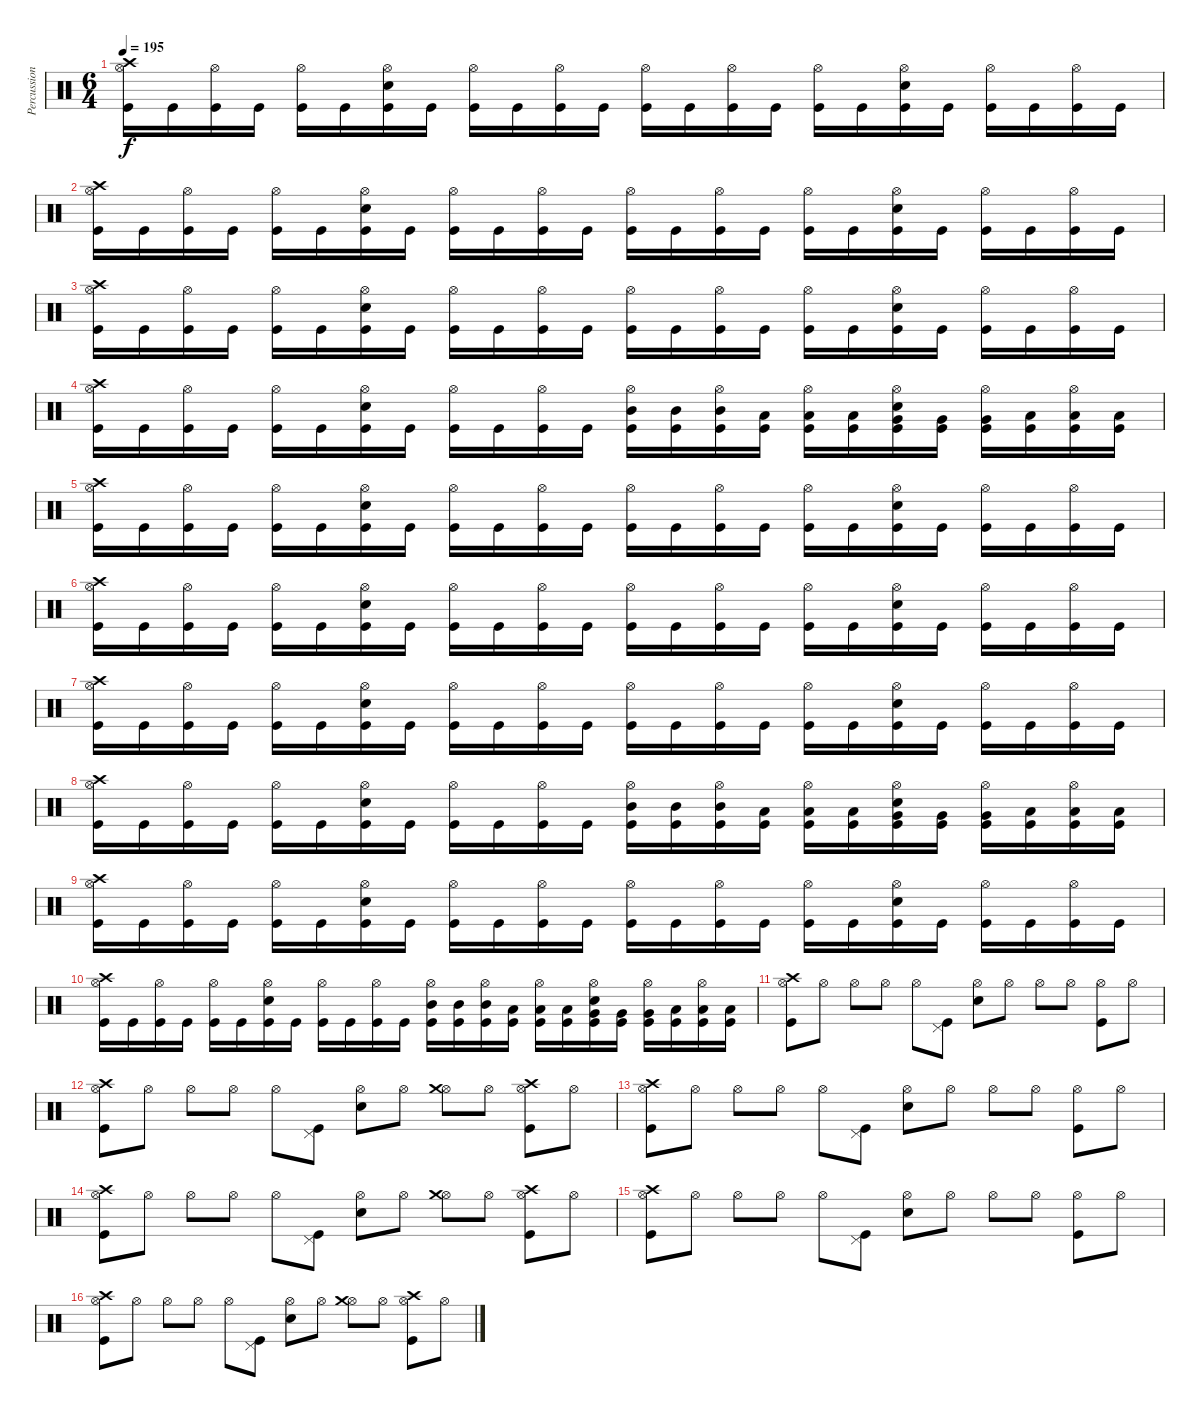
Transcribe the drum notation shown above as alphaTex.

\track ("Percussion" "Percussion") {instrument percussion}
\staff {score}
\articulation defaults
\ts (6 4)
\tempo 195
\clef neutral
\ks c
("Crash high (hit)" "Hi-Hat (open)" "Kick (hit)").16{dy f} "Kick (hit)".16 ("Hi-Hat (open)" "Kick (hit)").16 "Kick (hit)".16 ("Hi-Hat (open)" "Kick (hit)").16 "Kick (hit)".16 ("Electric Snare (hit)" "Hi-Hat (open)" "Kick (hit)").16 "Kick (hit)".16 ("Hi-Hat (open)" "Kick (hit)").16 "Kick (hit)".16 ("Hi-Hat (open)" "Kick (hit)").16 "Kick (hit)".16 ("Hi-Hat (open)" "Kick (hit)").16 "Kick (hit)".16 ("Hi-Hat (open)" "Kick (hit)").16 "Kick (hit)".16 ("Hi-Hat (open)" "Kick (hit)").16 "Kick (hit)".16 ("Electric Snare (hit)" "Hi-Hat (open)" "Kick (hit)").16 "Kick (hit)".16 ("Hi-Hat (open)" "Kick (hit)").16 "Kick (hit)".16 ("Hi-Hat (open)" "Kick (hit)").16 "Kick (hit)".16 |
("Crash high (hit)" "Hi-Hat (open)" "Kick (hit)").16 "Kick (hit)".16 ("Hi-Hat (open)" "Kick (hit)").16 "Kick (hit)".16 ("Hi-Hat (open)" "Kick (hit)").16 "Kick (hit)".16 ("Electric Snare (hit)" "Hi-Hat (open)" "Kick (hit)").16 "Kick (hit)".16 ("Hi-Hat (open)" "Kick (hit)").16 "Kick (hit)".16 ("Hi-Hat (open)" "Kick (hit)").16 "Kick (hit)".16 ("Hi-Hat (open)" "Kick (hit)").16 "Kick (hit)".16 ("Hi-Hat (open)" "Kick (hit)").16 "Kick (hit)".16 ("Hi-Hat (open)" "Kick (hit)").16 "Kick (hit)".16 ("Electric Snare (hit)" "Hi-Hat (open)" "Kick (hit)").16 "Kick (hit)".16 ("Hi-Hat (open)" "Kick (hit)").16 "Kick (hit)".16 ("Hi-Hat (open)" "Kick (hit)").16 "Kick (hit)".16 |
("Crash high (hit)" "Hi-Hat (open)" "Kick (hit)").16 "Kick (hit)".16 ("Hi-Hat (open)" "Kick (hit)").16 "Kick (hit)".16 ("Hi-Hat (open)" "Kick (hit)").16 "Kick (hit)".16 ("Electric Snare (hit)" "Hi-Hat (open)" "Kick (hit)").16 "Kick (hit)".16 ("Hi-Hat (open)" "Kick (hit)").16 "Kick (hit)".16 ("Hi-Hat (open)" "Kick (hit)").16 "Kick (hit)".16 ("Hi-Hat (open)" "Kick (hit)").16 "Kick (hit)".16 ("Hi-Hat (open)" "Kick (hit)").16 "Kick (hit)".16 ("Hi-Hat (open)" "Kick (hit)").16 "Kick (hit)".16 ("Electric Snare (hit)" "Hi-Hat (open)" "Kick (hit)").16 "Kick (hit)".16 ("Hi-Hat (open)" "Kick (hit)").16 "Kick (hit)".16 ("Hi-Hat (open)" "Kick (hit)").16 "Kick (hit)".16 |
("Crash high (hit)" "Hi-Hat (open)" "Kick (hit)").16 "Kick (hit)".16 ("Hi-Hat (open)" "Kick (hit)").16 "Kick (hit)".16 ("Hi-Hat (open)" "Kick (hit)").16 "Kick (hit)".16 ("Electric Snare (hit)" "Hi-Hat (open)" "Kick (hit)").16 "Kick (hit)".16 ("Hi-Hat (open)" "Kick (hit)").16 "Kick (hit)".16 ("Hi-Hat (open)" "Kick (hit)").16 "Kick (hit)".16 ("Hi-Hat (open)" "Mid Tom (hit)" "Kick (hit)").16 ("Mid Tom (hit)" "Kick (hit)").16 ("Hi-Hat (open)" "Mid Tom (hit)" "Kick (hit)").16 ("Low Tom (hit)" "Kick (hit)").16 ("Hi-Hat (open)" "Low Tom (hit)" "Kick (hit)").16 ("Low Tom (hit)" "Kick (hit)").16 ("Electric Snare (hit)" "Hi-Hat (open)" "Very Low Tom (hit)" "Kick (hit)").16 ("Very Low Tom (hit)" "Kick (hit)").16 ("Hi-Hat (open)" "Very Low Tom (hit)" "Kick (hit)").16 ("Low Floor Tom (hit)" "Kick (hit)").16 ("Hi-Hat (open)" "Low Floor Tom (hit)" "Kick (hit)").16 ("Low Floor Tom (hit)" "Kick (hit)").16 |
("Crash high (hit)" "Hi-Hat (open)" "Kick (hit)").16 "Kick (hit)".16 ("Hi-Hat (open)" "Kick (hit)").16 "Kick (hit)".16 ("Hi-Hat (open)" "Kick (hit)").16 "Kick (hit)".16 ("Electric Snare (hit)" "Hi-Hat (open)" "Kick (hit)").16 "Kick (hit)".16 ("Hi-Hat (open)" "Kick (hit)").16 "Kick (hit)".16 ("Hi-Hat (open)" "Kick (hit)").16 "Kick (hit)".16 ("Hi-Hat (open)" "Kick (hit)").16 "Kick (hit)".16 ("Hi-Hat (open)" "Kick (hit)").16 "Kick (hit)".16 ("Hi-Hat (open)" "Kick (hit)").16 "Kick (hit)".16 ("Electric Snare (hit)" "Hi-Hat (open)" "Kick (hit)").16 "Kick (hit)".16 ("Hi-Hat (open)" "Kick (hit)").16 "Kick (hit)".16 ("Hi-Hat (open)" "Kick (hit)").16 "Kick (hit)".16 |
("Crash high (hit)" "Hi-Hat (open)" "Kick (hit)").16 "Kick (hit)".16 ("Hi-Hat (open)" "Kick (hit)").16 "Kick (hit)".16 ("Hi-Hat (open)" "Kick (hit)").16 "Kick (hit)".16 ("Electric Snare (hit)" "Hi-Hat (open)" "Kick (hit)").16 "Kick (hit)".16 ("Hi-Hat (open)" "Kick (hit)").16 "Kick (hit)".16 ("Hi-Hat (open)" "Kick (hit)").16 "Kick (hit)".16 ("Hi-Hat (open)" "Kick (hit)").16 "Kick (hit)".16 ("Hi-Hat (open)" "Kick (hit)").16 "Kick (hit)".16 ("Hi-Hat (open)" "Kick (hit)").16 "Kick (hit)".16 ("Electric Snare (hit)" "Hi-Hat (open)" "Kick (hit)").16 "Kick (hit)".16 ("Hi-Hat (open)" "Kick (hit)").16 "Kick (hit)".16 ("Hi-Hat (open)" "Kick (hit)").16 "Kick (hit)".16 |
("Crash high (hit)" "Hi-Hat (open)" "Kick (hit)").16 "Kick (hit)".16 ("Hi-Hat (open)" "Kick (hit)").16 "Kick (hit)".16 ("Hi-Hat (open)" "Kick (hit)").16 "Kick (hit)".16 ("Electric Snare (hit)" "Hi-Hat (open)" "Kick (hit)").16 "Kick (hit)".16 ("Hi-Hat (open)" "Kick (hit)").16 "Kick (hit)".16 ("Hi-Hat (open)" "Kick (hit)").16 "Kick (hit)".16 ("Hi-Hat (open)" "Kick (hit)").16 "Kick (hit)".16 ("Hi-Hat (open)" "Kick (hit)").16 "Kick (hit)".16 ("Hi-Hat (open)" "Kick (hit)").16 "Kick (hit)".16 ("Electric Snare (hit)" "Hi-Hat (open)" "Kick (hit)").16 "Kick (hit)".16 ("Hi-Hat (open)" "Kick (hit)").16 "Kick (hit)".16 ("Hi-Hat (open)" "Kick (hit)").16 "Kick (hit)".16 |
("Crash high (hit)" "Hi-Hat (open)" "Kick (hit)").16 "Kick (hit)".16 ("Hi-Hat (open)" "Kick (hit)").16 "Kick (hit)".16 ("Hi-Hat (open)" "Kick (hit)").16 "Kick (hit)".16 ("Electric Snare (hit)" "Hi-Hat (open)" "Kick (hit)").16 "Kick (hit)".16 ("Hi-Hat (open)" "Kick (hit)").16 "Kick (hit)".16 ("Hi-Hat (open)" "Kick (hit)").16 "Kick (hit)".16 ("Hi-Hat (open)" "Mid Tom (hit)" "Kick (hit)").16 ("Mid Tom (hit)" "Kick (hit)").16 ("Hi-Hat (open)" "Mid Tom (hit)" "Kick (hit)").16 ("Low Tom (hit)" "Kick (hit)").16 ("Hi-Hat (open)" "Low Tom (hit)" "Kick (hit)").16 ("Low Tom (hit)" "Kick (hit)").16 ("Electric Snare (hit)" "Hi-Hat (open)" "Very Low Tom (hit)" "Kick (hit)").16 ("Very Low Tom (hit)" "Kick (hit)").16 ("Hi-Hat (open)" "Very Low Tom (hit)" "Kick (hit)").16 ("Low Floor Tom (hit)" "Kick (hit)").16 ("Hi-Hat (open)" "Low Floor Tom (hit)" "Kick (hit)").16 ("Low Floor Tom (hit)" "Kick (hit)").16 |
("Crash high (hit)" "Hi-Hat (open)" "Kick (hit)").16 "Kick (hit)".16 ("Hi-Hat (open)" "Kick (hit)").16 "Kick (hit)".16 ("Hi-Hat (open)" "Kick (hit)").16 "Kick (hit)".16 ("Electric Snare (hit)" "Hi-Hat (open)" "Kick (hit)").16 "Kick (hit)".16 ("Hi-Hat (open)" "Kick (hit)").16 "Kick (hit)".16 ("Hi-Hat (open)" "Kick (hit)").16 "Kick (hit)".16 ("Hi-Hat (open)" "Kick (hit)").16 "Kick (hit)".16 ("Hi-Hat (open)" "Kick (hit)").16 "Kick (hit)".16 ("Hi-Hat (open)" "Kick (hit)").16 "Kick (hit)".16 ("Electric Snare (hit)" "Hi-Hat (open)" "Kick (hit)").16 "Kick (hit)".16 ("Hi-Hat (open)" "Kick (hit)").16 "Kick (hit)".16 ("Hi-Hat (open)" "Kick (hit)").16 "Kick (hit)".16 |
("Crash high (hit)" "Hi-Hat (open)" "Kick (hit)").16 "Kick (hit)".16 ("Hi-Hat (open)" "Kick (hit)").16 "Kick (hit)".16 ("Hi-Hat (open)" "Kick (hit)").16 "Kick (hit)".16 ("Electric Snare (hit)" "Hi-Hat (open)" "Kick (hit)").16 "Kick (hit)".16 ("Hi-Hat (open)" "Kick (hit)").16 "Kick (hit)".16 ("Hi-Hat (open)" "Kick (hit)").16 "Kick (hit)".16 ("Hi-Hat (open)" "Mid Tom (hit)" "Kick (hit)").16 ("Mid Tom (hit)" "Kick (hit)").16 ("Hi-Hat (open)" "Mid Tom (hit)" "Kick (hit)").16 ("Low Tom (hit)" "Kick (hit)").16 ("Hi-Hat (open)" "Low Tom (hit)" "Kick (hit)").16 ("Low Tom (hit)" "Kick (hit)").16 ("Electric Snare (hit)" "Hi-Hat (open)" "Very Low Tom (hit)" "Kick (hit)").16 ("Very Low Tom (hit)" "Kick (hit)").16 ("Hi-Hat (open)" "Very Low Tom (hit)" "Kick (hit)").16 ("Low Floor Tom (hit)" "Kick (hit)").16 ("Hi-Hat (open)" "Low Floor Tom (hit)" "Kick (hit)").16 ("Low Floor Tom (hit)" "Kick (hit)").16 |
("Crash high (hit)" "Hi-Hat (open)" "Kick (hit)").8 "Hi-Hat (open)".8 "Hi-Hat (open)".8 "Hi-Hat (open)".8 "Hi-Hat (open)".8 ("Pedal Hi-Hat (hit)" "Kick (hit)").8 ("Hi-Hat (open)" "Electric Snare (hit)").8 "Hi-Hat (open)".8 "Hi-Hat (open)".8 "Hi-Hat (open)".8 ("Hi-Hat (open)" "Kick (hit)").8 "Hi-Hat (open)".8 |
("Crash high (hit)" "Hi-Hat (open)" "Kick (hit)").8 "Hi-Hat (open)".8 "Hi-Hat (open)".8 "Hi-Hat (open)".8 "Hi-Hat (open)".8 ("Pedal Hi-Hat (hit)" "Kick (hit)").8 ("Hi-Hat (open)" "Electric Snare (hit)").8 "Hi-Hat (open)".8 ("Hi-Hat (open)" "Crash medium (hit)").8 "Hi-Hat (open)".8 ("Hi-Hat (open)" "Crash high (hit)" "Kick (hit)").8 "Hi-Hat (open)".8 |
("Crash high (hit)" "Hi-Hat (open)" "Kick (hit)").8 "Hi-Hat (open)".8 "Hi-Hat (open)".8 "Hi-Hat (open)".8 "Hi-Hat (open)".8 ("Pedal Hi-Hat (hit)" "Kick (hit)").8 ("Hi-Hat (open)" "Electric Snare (hit)").8 "Hi-Hat (open)".8 "Hi-Hat (open)".8 "Hi-Hat (open)".8 ("Hi-Hat (open)" "Kick (hit)").8 "Hi-Hat (open)".8 |
("Crash high (hit)" "Hi-Hat (open)" "Kick (hit)").8 "Hi-Hat (open)".8 "Hi-Hat (open)".8 "Hi-Hat (open)".8 "Hi-Hat (open)".8 ("Pedal Hi-Hat (hit)" "Kick (hit)").8 ("Hi-Hat (open)" "Electric Snare (hit)").8 "Hi-Hat (open)".8 ("Hi-Hat (open)" "Crash medium (hit)").8 "Hi-Hat (open)".8 ("Hi-Hat (open)" "Crash high (hit)" "Kick (hit)").8 "Hi-Hat (open)".8 |
("Crash high (hit)" "Hi-Hat (open)" "Kick (hit)").8 "Hi-Hat (open)".8 "Hi-Hat (open)".8 "Hi-Hat (open)".8 "Hi-Hat (open)".8 ("Pedal Hi-Hat (hit)" "Kick (hit)").8 ("Hi-Hat (open)" "Electric Snare (hit)").8 "Hi-Hat (open)".8 "Hi-Hat (open)".8 "Hi-Hat (open)".8 ("Hi-Hat (open)" "Kick (hit)").8 "Hi-Hat (open)".8 |
("Crash high (hit)" "Hi-Hat (open)" "Kick (hit)").8 "Hi-Hat (open)".8 "Hi-Hat (open)".8 "Hi-Hat (open)".8 "Hi-Hat (open)".8 ("Pedal Hi-Hat (hit)" "Kick (hit)").8 ("Hi-Hat (open)" "Electric Snare (hit)").8 "Hi-Hat (open)".8 ("Hi-Hat (open)" "Crash medium (hit)").8 "Hi-Hat (open)".8 ("Hi-Hat (open)" "Crash high (hit)" "Kick (hit)").8 "Hi-Hat (open)".8
